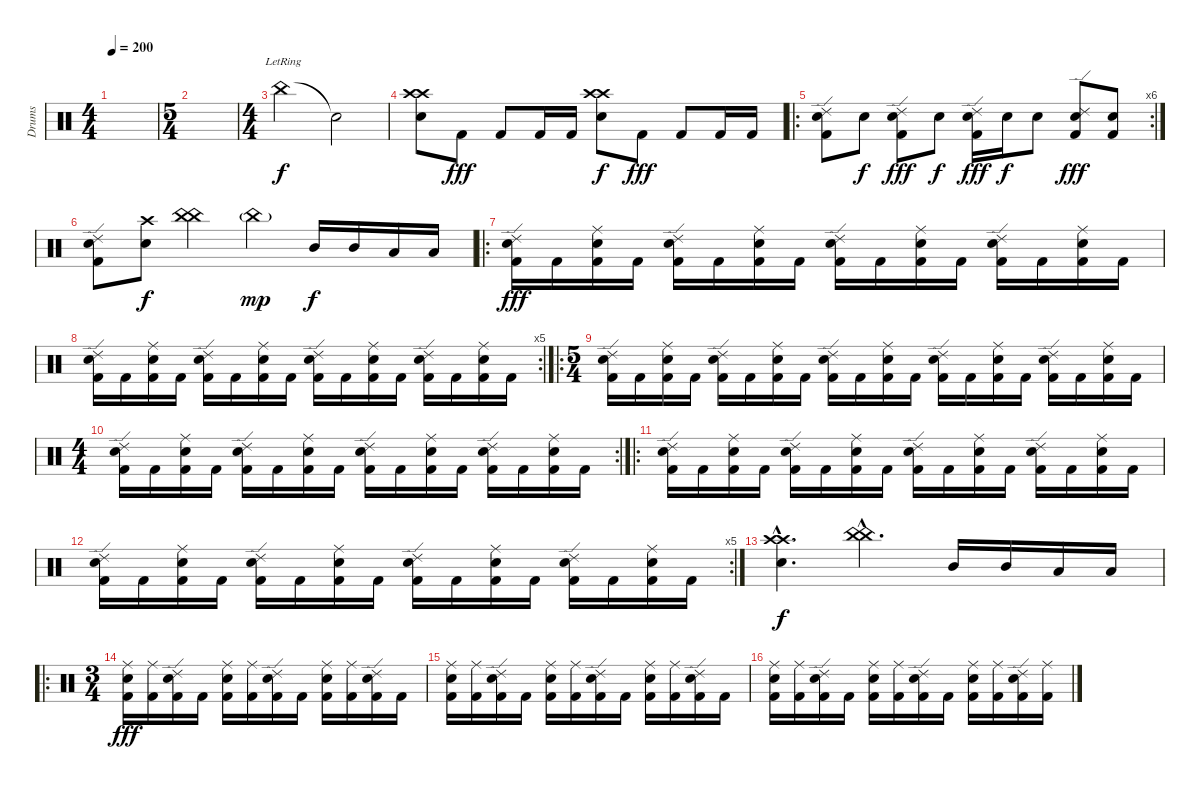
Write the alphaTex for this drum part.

\track ("Drums" "Drums") {instrument percussion}
\staff {score}
\articulation defaults
\ts (4 4)
\tempo 200
\clef neutral
\ks c
|
\ts (5 4)
|
\ts (4 4)
"China (hit)"{lr}.2 "Snare (hit)"{t}.2 |
("Crash high (hit)" "Electric Snare (hit)" "Crash high (hit)").8 "Kick (hit) 2".8{dy fff} "Kick (hit) 2".8 "Kick (hit) 2".16 "Kick (hit) 2".16 ("Crash high (hit)" "Electric Snare (hit)" "Crash high (hit)").8{dy f} "Kick (hit) 2".8{dy fff} "Kick (hit) 2".8 "Kick (hit) 2".16 "Kick (hit) 2".16 |
\ro
\rc 6
("Ride (edge) 2" "Electric Snare (hit)" "Kick (hit) 2").8 "Electric Snare (hit)".8{dy f} ("Ride (edge) 2" "Electric Snare (hit)" "Kick (hit) 2").8{dy fff} "Electric Snare (hit)".8{dy f} ("Ride (edge) 2" "Electric Snare (hit)" "Kick (hit) 2").16{dy fff} "Electric Snare (hit)".16{dy f} "Electric Snare (hit)".8 ("Ride (edge) 2" "Electric Snare (hit)" "Kick (hit) 2").8{dy fff} ("Electric Snare (hit)" "Kick (hit) 2").8 |
("Ride (edge) 2" "Electric Snare (hit)" "Kick (hit) 2").8 ("Crash high (hit)" "Electric Snare (hit)").8{dy f} ("China (hit)" "China (hit)").4 "China (hit)"{g}.4{dy mp} "Mid Tom (hit)".16{dy f} "Mid Tom (hit)".16 "Low Tom (hit)".16 "Low Tom (hit)".16 |
\ro
("Ride (edge) 2" "Electric Snare (hit)" "Kick (hit) 2").16{dy fff} "Kick (hit) 2".16 ("Ride (middle)" "Electric Snare (hit)" "Kick (hit) 2").16 "Kick (hit) 2".16 ("Ride (edge) 2" "Electric Snare (hit)" "Kick (hit) 2").16 "Kick (hit) 2".16 ("Ride (middle)" "Electric Snare (hit)" "Kick (hit) 2").16 "Kick (hit) 2".16 ("Ride (edge) 2" "Electric Snare (hit)" "Kick (hit) 2").16 "Kick (hit) 2".16 ("Ride (middle)" "Electric Snare (hit)" "Kick (hit) 2").16 "Kick (hit) 2".16 ("Ride (edge) 2" "Electric Snare (hit)" "Kick (hit) 2").16 "Kick (hit) 2".16 ("Ride (middle)" "Electric Snare (hit)" "Kick (hit) 2").16 "Kick (hit) 2".16 |
\rc 5
("Ride (edge) 2" "Electric Snare (hit)" "Kick (hit) 2").16 "Kick (hit) 2".16 ("Ride (middle)" "Electric Snare (hit)" "Kick (hit) 2").16 "Kick (hit) 2".16 ("Ride (edge) 2" "Electric Snare (hit)" "Kick (hit) 2").16 "Kick (hit) 2".16 ("Ride (middle)" "Electric Snare (hit)" "Kick (hit) 2").16 "Kick (hit) 2".16 ("Ride (edge) 2" "Electric Snare (hit)" "Kick (hit) 2").16 "Kick (hit) 2".16 ("Ride (middle)" "Electric Snare (hit)" "Kick (hit) 2").16 "Kick (hit) 2".16 ("Ride (edge) 2" "Electric Snare (hit)" "Kick (hit) 2").16 "Kick (hit) 2".16 ("Ride (middle)" "Electric Snare (hit)" "Kick (hit) 2").16 "Kick (hit) 2".16 |
\ro
\ts (5 4)
("Ride (edge) 2" "Electric Snare (hit)" "Kick (hit) 2").16 "Kick (hit) 2".16 ("Ride (middle)" "Electric Snare (hit)" "Kick (hit) 2").16 "Kick (hit) 2".16 ("Ride (edge) 2" "Electric Snare (hit)" "Kick (hit) 2").16 "Kick (hit) 2".16 ("Ride (middle)" "Electric Snare (hit)" "Kick (hit) 2").16 "Kick (hit) 2".16 ("Ride (edge) 2" "Electric Snare (hit)" "Kick (hit) 2").16 "Kick (hit) 2".16 ("Ride (middle)" "Electric Snare (hit)" "Kick (hit) 2").16 "Kick (hit) 2".16 ("Ride (edge) 2" "Electric Snare (hit)" "Kick (hit) 2").16 "Kick (hit) 2".16 ("Ride (middle)" "Electric Snare (hit)" "Kick (hit) 2").16 "Kick (hit) 2".16 ("Ride (edge) 2" "Electric Snare (hit)" "Kick (hit) 2").16 "Kick (hit) 2".16 ("Ride (middle)" "Electric Snare (hit)" "Kick (hit) 2").16 "Kick (hit) 2".16 |
\rc 2
\ts (4 4)
("Ride (edge) 2" "Electric Snare (hit)" "Kick (hit) 2").16 "Kick (hit) 2".16 ("Ride (middle)" "Electric Snare (hit)" "Kick (hit) 2").16 "Kick (hit) 2".16 ("Ride (edge) 2" "Electric Snare (hit)" "Kick (hit) 2").16 "Kick (hit) 2".16 ("Ride (middle)" "Electric Snare (hit)" "Kick (hit) 2").16 "Kick (hit) 2".16 ("Ride (edge) 2" "Electric Snare (hit)" "Kick (hit) 2").16 "Kick (hit) 2".16 ("Ride (middle)" "Electric Snare (hit)" "Kick (hit) 2").16 "Kick (hit) 2".16 ("Ride (edge) 2" "Electric Snare (hit)" "Kick (hit) 2").16 "Kick (hit) 2".16 ("Ride (middle)" "Electric Snare (hit)" "Kick (hit) 2").16 "Kick (hit) 2".16 |
\ro
("Ride (edge) 2" "Electric Snare (hit)" "Kick (hit) 2").16 "Kick (hit) 2".16 ("Ride (middle)" "Electric Snare (hit)" "Kick (hit) 2").16 "Kick (hit) 2".16 ("Ride (edge) 2" "Electric Snare (hit)" "Kick (hit) 2").16 "Kick (hit) 2".16 ("Ride (middle)" "Electric Snare (hit)" "Kick (hit) 2").16 "Kick (hit) 2".16 ("Ride (edge) 2" "Electric Snare (hit)" "Kick (hit) 2").16 "Kick (hit) 2".16 ("Ride (middle)" "Electric Snare (hit)" "Kick (hit) 2").16 "Kick (hit) 2".16 ("Ride (edge) 2" "Electric Snare (hit)" "Kick (hit) 2").16 "Kick (hit) 2".16 ("Ride (middle)" "Electric Snare (hit)" "Kick (hit) 2").16 "Kick (hit) 2".16 |
\rc 5
("Ride (edge) 2" "Electric Snare (hit)" "Kick (hit) 2").16 "Kick (hit) 2".16 ("Ride (middle)" "Electric Snare (hit)" "Kick (hit) 2").16 "Kick (hit) 2".16 ("Ride (edge) 2" "Electric Snare (hit)" "Kick (hit) 2").16 "Kick (hit) 2".16 ("Ride (middle)" "Electric Snare (hit)" "Kick (hit) 2").16 "Kick (hit) 2".16 ("Ride (edge) 2" "Electric Snare (hit)" "Kick (hit) 2").16 "Kick (hit) 2".16 ("Ride (middle)" "Electric Snare (hit)" "Kick (hit) 2").16 "Kick (hit) 2".16 ("Ride (edge) 2" "Electric Snare (hit)" "Kick (hit) 2").16 "Kick (hit) 2".16 ("Ride (middle)" "Electric Snare (hit)" "Kick (hit) 2").16 "Kick (hit) 2".16 |
("Crash high (hit)"{hac} "Crash high (hit)"{hac} "Electric Snare (hit)"{hac}).4{d dy f} ("China (hit)"{hac} "China (hit)"{hac}).4{d} "Mid Tom (hit)".16 "Mid Tom (hit)".16 "Low Tom (hit)".16 "Low Tom (hit)".16 |
\ro
\ts (3 4)
("Ride (middle)" "Electric Snare (hit)" "Kick (hit) 2").16{dy fff} ("Ride (middle)" "Kick (hit) 2").16 ("Ride (edge) 2" "Electric Snare (hit)" "Kick (hit) 2").16 "Kick (hit) 2".16 ("Ride (middle)" "Electric Snare (hit)" "Kick (hit) 2").16 ("Ride (middle)" "Kick (hit) 2").16 ("Ride (edge) 2" "Electric Snare (hit)" "Kick (hit) 2").16 "Kick (hit) 2".16 ("Ride (middle)" "Electric Snare (hit)" "Kick (hit) 2").16 ("Ride (middle)" "Kick (hit) 2").16 ("Ride (edge) 2" "Electric Snare (hit)" "Kick (hit) 2").16 "Kick (hit) 2".16 |
("Ride (middle)" "Electric Snare (hit)" "Kick (hit) 2").16 ("Ride (middle)" "Kick (hit) 2").16 ("Ride (edge) 2" "Electric Snare (hit)" "Kick (hit) 2").16 "Kick (hit) 2".16 ("Ride (middle)" "Electric Snare (hit)" "Kick (hit) 2").16 ("Ride (middle)" "Kick (hit) 2").16 ("Ride (edge) 2" "Electric Snare (hit)" "Kick (hit) 2").16 "Kick (hit) 2".16 ("Ride (middle)" "Electric Snare (hit)" "Kick (hit) 2").16 ("Ride (middle)" "Kick (hit) 2").16 ("Ride (edge) 2" "Electric Snare (hit)" "Kick (hit) 2").16 "Kick (hit) 2".16 |
("Ride (middle)" "Electric Snare (hit)" "Kick (hit) 2").16 ("Ride (middle)" "Kick (hit) 2").16 ("Ride (edge) 2" "Electric Snare (hit)" "Kick (hit) 2").16 "Kick (hit) 2".16 ("Ride (middle)" "Electric Snare (hit)" "Kick (hit) 2").16 ("Ride (middle)" "Kick (hit) 2").16 ("Ride (edge) 2" "Electric Snare (hit)" "Kick (hit) 2").16 "Kick (hit) 2".16 ("Ride (middle)" "Electric Snare (hit)" "Kick (hit) 2").16 ("Ride (middle)" "Kick (hit) 2").16 ("Ride (edge) 2" "Electric Snare (hit)" "Kick (hit) 2").16 ("Ride (middle)" "Kick (hit) 2").16
